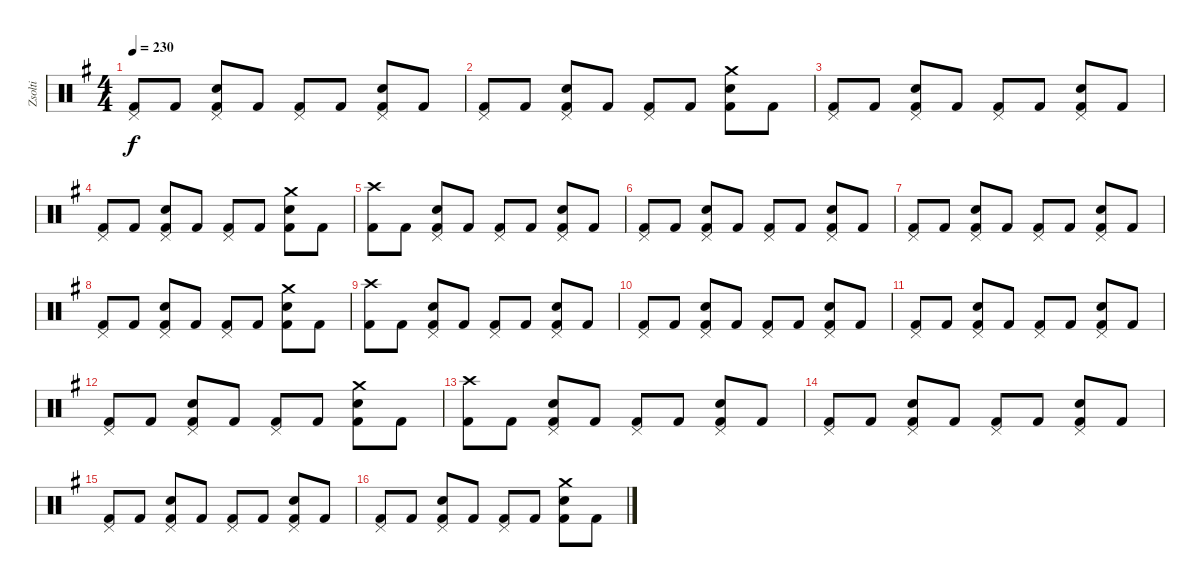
\track ("Zsolti" "Zsolti") {instrument percussion}
\staff {score}
\articulation defaults
\ts (4 4)
\tempo 230
\clef neutral
\ks eminor
("Pedal Hi-Hat (hit)" "Kick (hit) 2").8{dy f} "Kick (hit) 2".8 ("Pedal Hi-Hat (hit)" "Snare (hit) 2" "Kick (hit) 2").8 "Kick (hit) 2".8 ("Pedal Hi-Hat (hit)" "Kick (hit) 2").8 "Kick (hit) 2".8 ("Pedal Hi-Hat (hit)" "Snare (hit) 2" "Kick (hit) 2").8 "Kick (hit) 2".8 |
("Pedal Hi-Hat (hit)" "Kick (hit) 2").8 "Kick (hit) 2".8 ("Pedal Hi-Hat (hit)" "Snare (hit) 2" "Kick (hit) 2").8 "Kick (hit) 2".8 ("Pedal Hi-Hat (hit)" "Kick (hit) 2").8 "Kick (hit) 2".8 ("Crash medium (hit)" "Snare (hit) 2" "Kick (hit) 2").8 "Kick (hit) 2".8 |
("Pedal Hi-Hat (hit)" "Kick (hit) 2").8 "Kick (hit) 2".8 ("Pedal Hi-Hat (hit)" "Snare (hit) 2" "Kick (hit) 2").8 "Kick (hit) 2".8 ("Pedal Hi-Hat (hit)" "Kick (hit) 2").8 "Kick (hit) 2".8 ("Pedal Hi-Hat (hit)" "Snare (hit) 2" "Kick (hit) 2").8 "Kick (hit) 2".8 |
("Pedal Hi-Hat (hit)" "Kick (hit) 2").8 "Kick (hit) 2".8 ("Pedal Hi-Hat (hit)" "Snare (hit) 2" "Kick (hit) 2").8 "Kick (hit) 2".8 ("Pedal Hi-Hat (hit)" "Kick (hit) 2").8 "Kick (hit) 2".8 ("Crash medium (hit)" "Snare (hit) 2" "Kick (hit) 2").8 "Kick (hit) 2".8 |
("Crash high (hit)" "Kick (hit) 2").8 "Kick (hit) 2".8 ("Pedal Hi-Hat (hit)" "Snare (hit) 2" "Kick (hit) 2").8 "Kick (hit) 2".8 ("Pedal Hi-Hat (hit)" "Kick (hit) 2").8 "Kick (hit) 2".8 ("Pedal Hi-Hat (hit)" "Snare (hit) 2" "Kick (hit) 2").8 "Kick (hit) 2".8 |
("Pedal Hi-Hat (hit)" "Kick (hit) 2").8 "Kick (hit) 2".8 ("Pedal Hi-Hat (hit)" "Snare (hit) 2" "Kick (hit) 2").8 "Kick (hit) 2".8 ("Pedal Hi-Hat (hit)" "Kick (hit) 2").8 "Kick (hit) 2".8 ("Pedal Hi-Hat (hit)" "Snare (hit) 2" "Kick (hit) 2").8 "Kick (hit) 2".8 |
("Pedal Hi-Hat (hit)" "Kick (hit) 2").8 "Kick (hit) 2".8 ("Pedal Hi-Hat (hit)" "Snare (hit) 2" "Kick (hit) 2").8 "Kick (hit) 2".8 ("Pedal Hi-Hat (hit)" "Kick (hit) 2").8 "Kick (hit) 2".8 ("Pedal Hi-Hat (hit)" "Snare (hit) 2" "Kick (hit) 2").8 "Kick (hit) 2".8 |
("Pedal Hi-Hat (hit)" "Kick (hit) 2").8 "Kick (hit) 2".8 ("Pedal Hi-Hat (hit)" "Snare (hit) 2" "Kick (hit) 2").8 "Kick (hit) 2".8 ("Pedal Hi-Hat (hit)" "Kick (hit) 2").8 "Kick (hit) 2".8 ("Crash medium (hit)" "Snare (hit) 2" "Kick (hit) 2").8 "Kick (hit) 2".8 |
("Crash high (hit)" "Kick (hit) 2").8 "Kick (hit) 2".8 ("Pedal Hi-Hat (hit)" "Snare (hit) 2" "Kick (hit) 2").8 "Kick (hit) 2".8 ("Pedal Hi-Hat (hit)" "Kick (hit) 2").8 "Kick (hit) 2".8 ("Pedal Hi-Hat (hit)" "Snare (hit) 2" "Kick (hit) 2").8 "Kick (hit) 2".8 |
("Pedal Hi-Hat (hit)" "Kick (hit) 2").8 "Kick (hit) 2".8 ("Pedal Hi-Hat (hit)" "Snare (hit) 2" "Kick (hit) 2").8 "Kick (hit) 2".8 ("Pedal Hi-Hat (hit)" "Kick (hit) 2").8 "Kick (hit) 2".8 ("Pedal Hi-Hat (hit)" "Snare (hit) 2" "Kick (hit) 2").8 "Kick (hit) 2".8 |
("Pedal Hi-Hat (hit)" "Kick (hit) 2").8 "Kick (hit) 2".8 ("Pedal Hi-Hat (hit)" "Snare (hit) 2" "Kick (hit) 2").8 "Kick (hit) 2".8 ("Pedal Hi-Hat (hit)" "Kick (hit) 2").8 "Kick (hit) 2".8 ("Pedal Hi-Hat (hit)" "Snare (hit) 2" "Kick (hit) 2").8 "Kick (hit) 2".8 |
("Pedal Hi-Hat (hit)" "Kick (hit) 2").8 "Kick (hit) 2".8 ("Pedal Hi-Hat (hit)" "Snare (hit) 2" "Kick (hit) 2").8 "Kick (hit) 2".8 ("Pedal Hi-Hat (hit)" "Kick (hit) 2").8 "Kick (hit) 2".8 ("Crash medium (hit)" "Snare (hit) 2" "Kick (hit) 2").8 "Kick (hit) 2".8 |
("Crash high (hit)" "Kick (hit) 2").8 "Kick (hit) 2".8 ("Pedal Hi-Hat (hit)" "Snare (hit) 2" "Kick (hit) 2").8 "Kick (hit) 2".8 ("Pedal Hi-Hat (hit)" "Kick (hit) 2").8 "Kick (hit) 2".8 ("Pedal Hi-Hat (hit)" "Snare (hit) 2" "Kick (hit) 2").8 "Kick (hit) 2".8 |
("Pedal Hi-Hat (hit)" "Kick (hit) 2").8 "Kick (hit) 2".8 ("Pedal Hi-Hat (hit)" "Snare (hit) 2" "Kick (hit) 2").8 "Kick (hit) 2".8 ("Pedal Hi-Hat (hit)" "Kick (hit) 2").8 "Kick (hit) 2".8 ("Pedal Hi-Hat (hit)" "Snare (hit) 2" "Kick (hit) 2").8 "Kick (hit) 2".8 |
("Pedal Hi-Hat (hit)" "Kick (hit) 2").8 "Kick (hit) 2".8 ("Pedal Hi-Hat (hit)" "Snare (hit) 2" "Kick (hit) 2").8 "Kick (hit) 2".8 ("Pedal Hi-Hat (hit)" "Kick (hit) 2").8 "Kick (hit) 2".8 ("Pedal Hi-Hat (hit)" "Snare (hit) 2" "Kick (hit) 2").8 "Kick (hit) 2".8 |
("Pedal Hi-Hat (hit)" "Kick (hit) 2").8 "Kick (hit) 2".8 ("Pedal Hi-Hat (hit)" "Snare (hit) 2" "Kick (hit) 2").8 "Kick (hit) 2".8 ("Pedal Hi-Hat (hit)" "Kick (hit) 2").8 "Kick (hit) 2".8 ("Crash medium (hit)" "Snare (hit) 2" "Kick (hit) 2").8 "Kick (hit) 2".8
